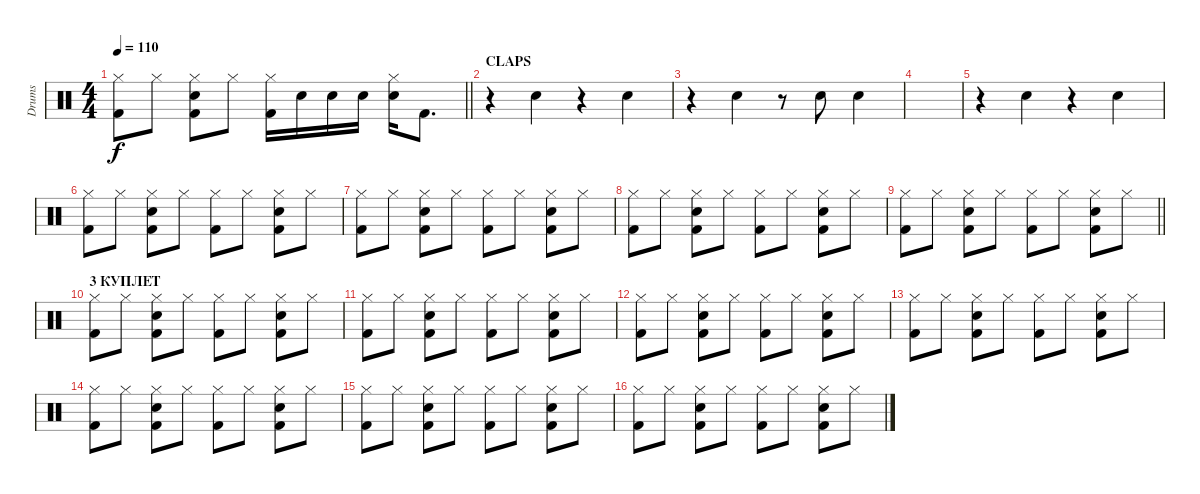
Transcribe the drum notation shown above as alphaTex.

\track ("Drums" "Drums") {instrument percussion}
\staff {score}
\articulation defaults
\ts (4 4)
\tempo 110
\clef neutral
\barLineRight lightlight
\ks c
("Hi-Hat (closed)" "Kick (hit) 2").8{dy f} "Hi-Hat (closed)".8 ("Hi-Hat (closed)" "Snare (hit) 2" "Kick (hit) 2").8 "Hi-Hat (closed)".8 ("Hi-Hat (closed)" "Kick (hit) 2").16 "Snare (hit) 2".16 "Snare (hit) 2".16 "Snare (hit) 2".16 ("Hi-Hat (closed)" "Snare (hit) 2").16 "Kick (hit) 2".8{d} |
\section ("" "CLAPS")
r.4 "Hand Clap (hit)".4 r.4 "Hand Clap (hit)".4 |
r.4 "Hand Clap (hit)".4 r.8 "Hand Clap (hit)".8 "Hand Clap (hit)".4 |
|
r.4 "Hand Clap (hit)".4 r.4 "Hand Clap (hit)".4 |
("Hi-Hat (closed)" "Kick (hit) 2").8 "Hi-Hat (closed)".8 ("Hi-Hat (closed)" "Snare (hit) 2" "Kick (hit) 2").8 "Hi-Hat (closed)".8 ("Hi-Hat (closed)" "Kick (hit) 2").8 "Hi-Hat (closed)".8 ("Hi-Hat (closed)" "Snare (hit) 2" "Kick (hit) 2").8 "Hi-Hat (closed)".8 |
("Hi-Hat (closed)" "Kick (hit) 2").8 "Hi-Hat (closed)".8 ("Hi-Hat (closed)" "Snare (hit) 2" "Kick (hit) 2").8 "Hi-Hat (closed)".8 ("Hi-Hat (closed)" "Kick (hit) 2").8 "Hi-Hat (closed)".8 ("Hi-Hat (closed)" "Snare (hit) 2" "Kick (hit) 2").8 "Hi-Hat (closed)".8 |
("Hi-Hat (closed)" "Kick (hit) 2").8 "Hi-Hat (closed)".8 ("Hi-Hat (closed)" "Snare (hit) 2" "Kick (hit) 2").8 "Hi-Hat (closed)".8 ("Hi-Hat (closed)" "Kick (hit) 2").8 "Hi-Hat (closed)".8 ("Hi-Hat (closed)" "Snare (hit) 2" "Kick (hit) 2").8 "Hi-Hat (closed)".8 |
\barLineRight lightlight
("Hi-Hat (closed)" "Kick (hit) 2").8 "Hi-Hat (closed)".8 ("Hi-Hat (closed)" "Snare (hit) 2" "Kick (hit) 2").8 "Hi-Hat (closed)".8 ("Hi-Hat (closed)" "Kick (hit) 2").8 "Hi-Hat (closed)".8 ("Hi-Hat (closed)" "Snare (hit) 2" "Kick (hit) 2").8 "Hi-Hat (closed)".8 |
\section ("" "3 КУПЛЕТ")
("Hi-Hat (closed)" "Kick (hit) 2").8 "Hi-Hat (closed)".8 ("Hi-Hat (closed)" "Snare (hit) 2" "Kick (hit) 2").8 "Hi-Hat (closed)".8 ("Hi-Hat (closed)" "Kick (hit) 2").8 "Hi-Hat (closed)".8 ("Hi-Hat (closed)" "Snare (hit) 2" "Kick (hit) 2").8 "Hi-Hat (closed)".8 |
("Hi-Hat (closed)" "Kick (hit) 2").8 "Hi-Hat (closed)".8 ("Hi-Hat (closed)" "Snare (hit) 2" "Kick (hit) 2").8 "Hi-Hat (closed)".8 ("Hi-Hat (closed)" "Kick (hit) 2").8 "Hi-Hat (closed)".8 ("Hi-Hat (closed)" "Snare (hit) 2" "Kick (hit) 2").8 "Hi-Hat (closed)".8 |
("Hi-Hat (closed)" "Kick (hit) 2").8 "Hi-Hat (closed)".8 ("Hi-Hat (closed)" "Snare (hit) 2" "Kick (hit) 2").8 "Hi-Hat (closed)".8 ("Hi-Hat (closed)" "Kick (hit) 2").8 "Hi-Hat (closed)".8 ("Hi-Hat (closed)" "Snare (hit) 2" "Kick (hit) 2").8 "Hi-Hat (closed)".8 |
("Hi-Hat (closed)" "Kick (hit) 2").8 "Hi-Hat (closed)".8 ("Hi-Hat (closed)" "Snare (hit) 2" "Kick (hit) 2").8 "Hi-Hat (closed)".8 ("Hi-Hat (closed)" "Kick (hit) 2").8 "Hi-Hat (closed)".8 ("Hi-Hat (closed)" "Snare (hit) 2" "Kick (hit) 2").8 "Hi-Hat (closed)".8 |
("Hi-Hat (closed)" "Kick (hit) 2").8 "Hi-Hat (closed)".8 ("Hi-Hat (closed)" "Snare (hit) 2" "Kick (hit) 2").8 "Hi-Hat (closed)".8 ("Hi-Hat (closed)" "Kick (hit) 2").8 "Hi-Hat (closed)".8 ("Hi-Hat (closed)" "Snare (hit) 2" "Kick (hit) 2").8 "Hi-Hat (closed)".8 |
("Hi-Hat (closed)" "Kick (hit) 2").8 "Hi-Hat (closed)".8 ("Hi-Hat (closed)" "Snare (hit) 2" "Kick (hit) 2").8 "Hi-Hat (closed)".8 ("Hi-Hat (closed)" "Kick (hit) 2").8 "Hi-Hat (closed)".8 ("Hi-Hat (closed)" "Snare (hit) 2" "Kick (hit) 2").8 "Hi-Hat (closed)".8 |
("Hi-Hat (closed)" "Kick (hit) 2").8 "Hi-Hat (closed)".8 ("Hi-Hat (closed)" "Snare (hit) 2" "Kick (hit) 2").8 "Hi-Hat (closed)".8 ("Hi-Hat (closed)" "Kick (hit) 2").8 "Hi-Hat (closed)".8 ("Hi-Hat (closed)" "Snare (hit) 2" "Kick (hit) 2").8 "Hi-Hat (closed)".8
